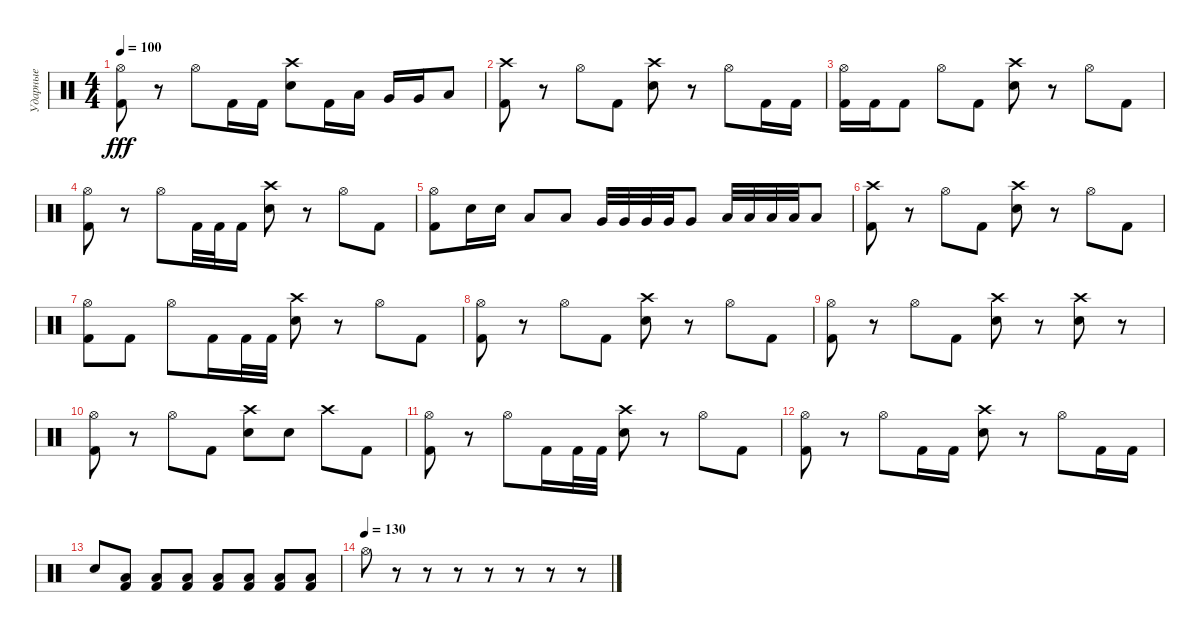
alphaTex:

\track ("Ударные" "Ударные") {instrument percussion}
\staff {score}
\articulation defaults
\ts (4 4)
\tempo 100
\clef neutral
\ks c
("Hi-Hat (open)" "Kick (hit) 2").8{dy fff} r.8 "Hi-Hat (open)".8 "Kick (hit) 2".16 "Kick (hit) 2".16 ("Crash high (hit)" "Electric Snare (hit)").8 "Kick (hit) 2".16 "Low Tom (hit)".16 "Very Low Tom (hit)".16 "Very Low Tom (hit)".16 "Low Floor Tom (hit)".8 |
("Crash high (hit)" "Kick (hit) 2").8 r.8 "Hi-Hat (open)".8 "Kick (hit) 2".8 ("Crash high (hit)" "Electric Snare (hit)").8 r.8 "Hi-Hat (open)".8 "Kick (hit) 2".16 "Kick (hit) 2".16 |
("Hi-Hat (open)" "Kick (hit) 2").16 "Kick (hit) 2".16 "Kick (hit) 2".8 "Hi-Hat (open)".8 "Kick (hit) 2".8 ("Crash high (hit)" "Electric Snare (hit)").8 r.8 "Hi-Hat (open)".8 "Kick (hit) 2".8 |
("Hi-Hat (open)" "Kick (hit) 2").8 r.8 "Hi-Hat (open)".8 "Kick (hit) 2".32 "Kick (hit) 2".32 "Kick (hit) 2".16 ("Crash high (hit)" "Electric Snare (hit)").8 r.8 "Hi-Hat (open)".8 "Kick (hit) 2".8 |
("Hi-Hat (open)" "Kick (hit) 2").8 "Electric Snare (hit)".16 "Electric Snare (hit)".16 "Low Tom (hit)".8 "Low Tom (hit)".8 "Very Low Tom (hit)".32 "Very Low Tom (hit)".32 "Very Low Tom (hit)".32 "Very Low Tom (hit)".32 "Very Low Tom (hit)".8 "Low Floor Tom (hit)".32 "Low Floor Tom (hit)".32 "Low Floor Tom (hit)".32 "Low Floor Tom (hit)".32 "Low Floor Tom (hit)".8 |
("Crash high (hit)" "Kick (hit) 2").8 r.8 "Hi-Hat (open)".8 "Kick (hit) 2".8 ("Crash high (hit)" "Electric Snare (hit)").8 r.8 "Hi-Hat (open)".8 "Kick (hit) 2".8 |
("Hi-Hat (open)" "Kick (hit) 2").8 "Kick (hit) 2".8 "Hi-Hat (open)".8 "Kick (hit) 2".16 "Kick (hit) 2".32 "Kick (hit) 2".32 ("Crash high (hit)" "Electric Snare (hit)").8 r.8 "Hi-Hat (open)".8 "Kick (hit) 2".8 |
("Hi-Hat (open)" "Kick (hit) 2").8 r.8 "Hi-Hat (open)".8 "Kick (hit) 2".8 ("Crash high (hit)" "Electric Snare (hit)").8 r.8 "Hi-Hat (open)".8 "Kick (hit) 2".8 |
("Hi-Hat (open)" "Kick (hit) 2").8 r.8 "Hi-Hat (open)".8 "Kick (hit) 2".8 ("Crash high (hit)" "Electric Snare (hit)").8 r.8 ("Crash high (hit)" "Electric Snare (hit)").8 r.8 |
("Hi-Hat (open)" "Kick (hit) 2").8 r.8 "Hi-Hat (open)".8 "Kick (hit) 2".8 ("Crash high (hit)" "Electric Snare (hit)").8 "Electric Snare (hit)".8 "Crash high (hit)".8 "Kick (hit) 2".8 |
("Hi-Hat (open)" "Kick (hit) 2").8 r.8 "Hi-Hat (open)".8 "Kick (hit) 2".16 "Kick (hit) 2".32 "Kick (hit) 2".32 ("Crash high (hit)" "Electric Snare (hit)").8 r.8 "Hi-Hat (open)".8 "Kick (hit) 2".8 |
("Hi-Hat (open)" "Kick (hit) 2").8 r.8 "Hi-Hat (open)".8 "Kick (hit) 2".16 "Kick (hit) 2".16 ("Crash high (hit)" "Electric Snare (hit)").8 r.8 "Hi-Hat (open)".8 "Kick (hit) 2".16 "Kick (hit) 2".16 |
"Electric Snare (hit)".8 ("Low Floor Tom (hit)" "Kick (hit) 2").8 ("Low Floor Tom (hit)" "Kick (hit) 2").8 ("Low Floor Tom (hit)" "Kick (hit) 2").8 ("Low Floor Tom (hit)" "Kick (hit) 2").8 ("Low Floor Tom (hit)" "Kick (hit) 2").8 ("Low Floor Tom (hit)" "Kick (hit) 2").8 ("Low Floor Tom (hit)" "Kick (hit) 2").8 |
\tempo (130)
"Hi-Hat (open)".8 r.8 r.8 r.8 r.8 r.8 r.8 r.8
